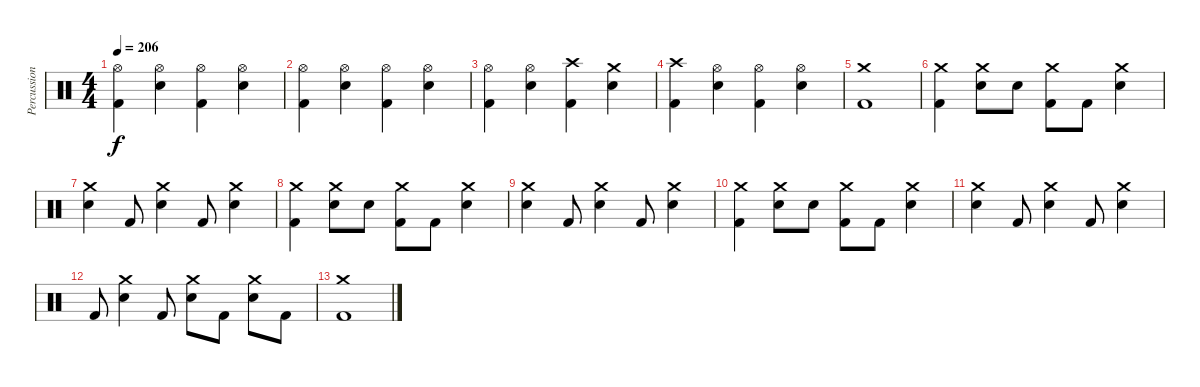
\track ("Percussion" "Percussion") {instrument percussion}
\staff {score}
\articulation defaults
\ts (4 4)
\tempo 206
\clef neutral
\ks c
("Hi-Hat (open)" "Kick (hit) 2").4{dy f} ("Hi-Hat (open)" "Electric Snare (hit)").4 ("Hi-Hat (open)" "Kick (hit) 2").4 ("Hi-Hat (open)" "Electric Snare (hit)").4 |
("Hi-Hat (open)" "Kick (hit) 2").4 ("Hi-Hat (open)" "Electric Snare (hit)").4 ("Hi-Hat (open)" "Kick (hit) 2").4 ("Hi-Hat (open)" "Electric Snare (hit)").4 |
("Hi-Hat (open)" "Kick (hit) 2").4 ("Hi-Hat (open)" "Electric Snare (hit)").4 ("Crash high (hit)" "Kick (hit) 2").4 ("Crash medium (hit)" "Electric Snare (hit)").4 |
("Crash high (hit)" "Kick (hit) 2").4 ("Hi-Hat (open)" "Electric Snare (hit)").4 ("Hi-Hat (open)" "Kick (hit) 2").4 ("Hi-Hat (open)" "Electric Snare (hit)").4 |
("Crash medium (hit)" "Kick (hit) 2").1 |
("Crash medium (hit)" "Kick (hit) 2").4 ("Crash medium (hit)" "Electric Snare (hit)").8 "Electric Snare (hit)".8 ("Crash medium (hit)" "Kick (hit) 2").8 "Kick (hit) 2".8 ("Crash medium (hit)" "Electric Snare (hit)").4 |
("Crash medium (hit)" "Electric Snare (hit)").4 "Kick (hit) 2".8 ("Crash medium (hit)" "Electric Snare (hit)").4 "Kick (hit) 2".8 ("Crash medium (hit)" "Electric Snare (hit)").4 |
("Crash medium (hit)" "Kick (hit) 2").4 ("Crash medium (hit)" "Electric Snare (hit)").8 "Electric Snare (hit)".8 ("Crash medium (hit)" "Kick (hit) 2").8 "Kick (hit) 2".8 ("Crash medium (hit)" "Electric Snare (hit)").4 |
("Crash medium (hit)" "Electric Snare (hit)").4 "Kick (hit) 2".8 ("Crash medium (hit)" "Electric Snare (hit)").4 "Kick (hit) 2".8 ("Crash medium (hit)" "Electric Snare (hit)").4 |
("Crash medium (hit)" "Kick (hit) 2").4 ("Crash medium (hit)" "Electric Snare (hit)").8 "Electric Snare (hit)".8 ("Crash medium (hit)" "Kick (hit) 2").8 "Kick (hit) 2".8 ("Crash medium (hit)" "Electric Snare (hit)").4 |
("Crash medium (hit)" "Electric Snare (hit)").4 "Kick (hit) 2".8 ("Crash medium (hit)" "Electric Snare (hit)").4 "Kick (hit) 2".8 ("Crash medium (hit)" "Electric Snare (hit)").4 |
"Kick (hit) 2".8 ("Crash medium (hit)" "Electric Snare (hit)").4 "Kick (hit) 2".8 ("Crash medium (hit)" "Electric Snare (hit)").8 "Kick (hit) 2".8 ("Crash medium (hit)" "Electric Snare (hit)").8 "Kick (hit) 2".8 |
("Crash medium (hit)" "Kick (hit) 2").1
